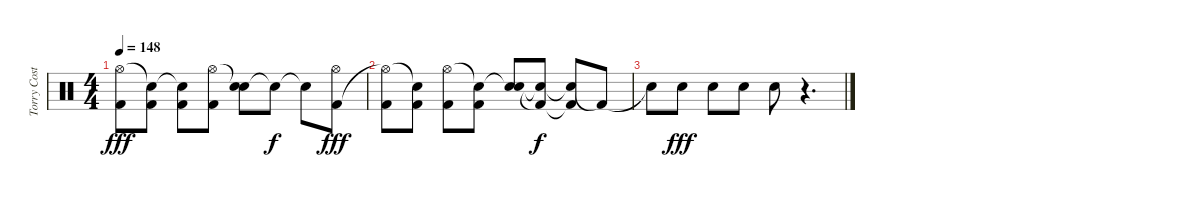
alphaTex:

\track ("Torry Costellano" "Torry Cost") {instrument percussion bank 127}
\staff {score}
\articulation defaults
\ts (4 4)
\tempo 148
\clef neutral
\ks c
("Hi-Hat (open)" "Kick (hit) 2").8{dy fff} ("Snare (hit)"{t} "Kick (hit) 2").8 ("Snare (hit)"{t} "Kick (hit) 2").8 ("Hi-Hat (open)" "Kick (hit) 2").8 ("Snare (hit)"{t} "Electric Snare (hit)").8 "Snare (hit)"{t}.8{dy f} "Snare (hit)"{t}.8 ("Kick (hit) 2" "Hi-Hat (open)").8{dy fff} |
("Hi-Hat (open)"{t} "Kick (hit) 2").8 ("Snare (hit)"{t} "Kick (hit) 2").8 ("Hi-Hat (open)" "Kick (hit) 2").8 ("Snare (hit)"{t} "Kick (hit) 2").8 ("Snare (hit)"{t} "Electric Snare (hit)").8 ("Snare (hit)"{t} "Kick (hit) 2"{t}).8{dy f} ("Snare (hit)"{t} "Kick (hit) 2"{t}).8 "Kick (hit) 2"{t}.8 |
"Electric Snare (hit)"{t}.8 "Electric Snare (hit)".8{dy fff} "Electric Snare (hit)".8 "Electric Snare (hit)".8 "Electric Snare (hit)".8 r.4{d}
